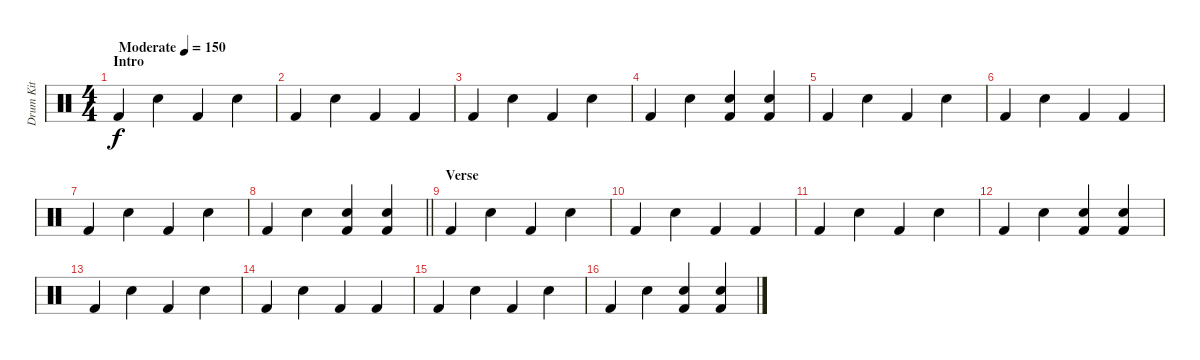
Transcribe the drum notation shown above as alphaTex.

\track ("Drum Kit" "Drum Kit") {instrument percussion}
\staff {score}
\articulation defaults
\ts (4 4)
\section ("" "Intro")
\tempo (150 "Moderate")
\clef neutral
\ks c "Kick (hit) 2".4{dy f} "Snare (hit) 2".4 "Kick (hit) 2".4 "Snare (hit) 2".4
|
"Kick (hit) 2".4 "Snare (hit) 2".4 "Kick (hit) 2".4 "Kick (hit) 2".4 |
"Kick (hit) 2".4 "Snare (hit) 2".4 "Kick (hit) 2".4 "Snare (hit) 2".4 |
"Kick (hit) 2".4 "Snare (hit) 2".4 ("Snare (hit) 2" "Kick (hit) 2").4 ("Snare (hit) 2" "Kick (hit) 2").4 |
"Kick (hit) 2".4 "Snare (hit) 2".4 "Kick (hit) 2".4 "Snare (hit) 2".4 |
"Kick (hit) 2".4 "Snare (hit) 2".4 "Kick (hit) 2".4 "Kick (hit) 2".4 |
"Kick (hit) 2".4 "Snare (hit) 2".4 "Kick (hit) 2".4 "Snare (hit) 2".4 |
\barLineRight lightlight "Kick (hit) 2".4 "Snare (hit) 2".4
("Snare (hit) 2" "Kick (hit) 2").4 ("Snare (hit) 2" "Kick (hit) 2").4 |
\section ("" "Verse")
"Kick (hit) 2".4 "Snare (hit) 2".4 "Kick (hit) 2".4 "Snare (hit) 2".4 |
"Kick (hit) 2".4 "Snare (hit) 2".4 "Kick (hit) 2".4 "Kick (hit) 2".4 |
"Kick (hit) 2".4 "Snare (hit) 2".4 "Kick (hit) 2".4 "Snare (hit) 2".4 |
"Kick (hit) 2".4 "Snare (hit) 2".4 ("Snare (hit) 2" "Kick (hit) 2").4 ("Snare (hit) 2" "Kick (hit) 2").4 |
"Kick (hit) 2".4 "Snare (hit) 2".4 "Kick (hit) 2".4 "Snare (hit) 2".4 |
"Kick (hit) 2".4 "Snare (hit) 2".4 "Kick (hit) 2".4 "Kick (hit) 2".4 |
"Kick (hit) 2".4 "Snare (hit) 2".4 "Kick (hit) 2".4 "Snare (hit) 2".4 |
"Kick (hit) 2".4 "Snare (hit) 2".4 ("Snare (hit) 2" "Kick (hit) 2").4 ("Snare (hit) 2" "Kick (hit) 2").4
